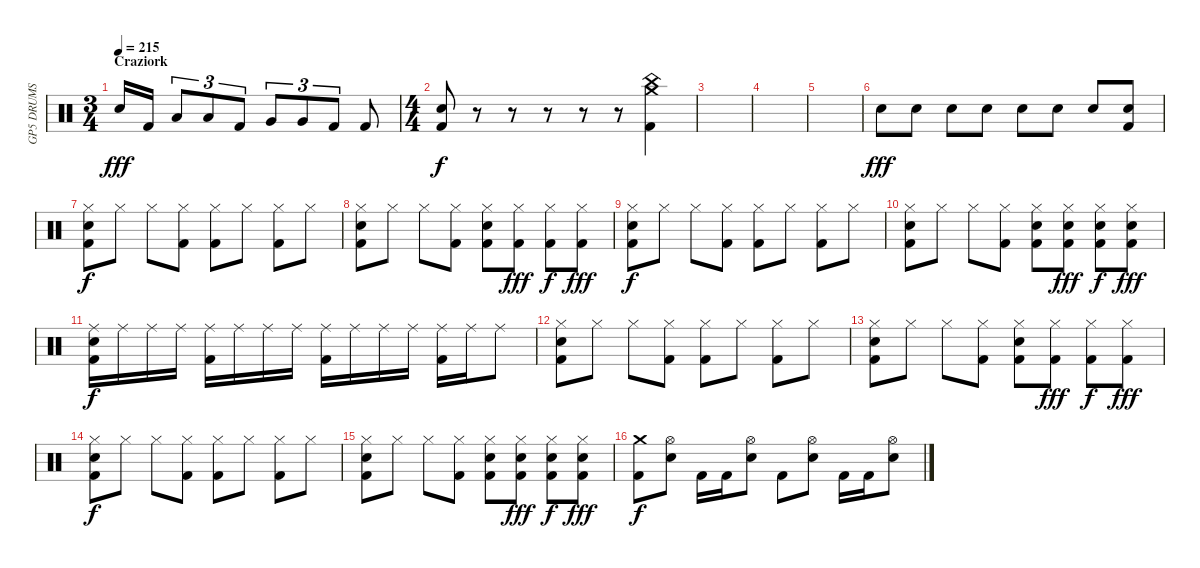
\track ("GP5 DRUMS" "GP5 DRUMS") {instrument percussion}
\staff {score}
\articulation defaults
\ts (3 4)
\section ("" "Craziork")
\tempo 215
\clef neutral
\ks c "Electric Snare (hit)".16{dy fff} "Kick (hit) 2".16 "Low Tom (hit)".8{tu (3 2)} "Low Tom (hit)".8{tu (3 2)} "Kick (hit) 2".8{tu (3 2)} "Very Low Tom (hit)".8{tu (3 2)} "Very Low Tom (hit)".8{tu (3 2)} "Kick (hit) 2".8{tu (3 2)} "Kick (hit) 2".8
|
\ts (4 4)
("Electric Snare (hit)" "Kick (hit) 2").8{dy f} r.8 r.8 r.8 r.8 r.8 ("China (hit)" "Crash medium (hit)" "Kick (hit) 2").4 |
|
|
|
"Electric Snare (hit)".8{dy fff} "Electric Snare (hit)".8 "Electric Snare (hit)".8 "Electric Snare (hit)".8 "Electric Snare (hit)".8 "Electric Snare (hit)".8 "Electric Snare (hit)".8 ("Electric Snare (hit)" "Kick (hit) 2").8 |
("Electric Snare (hit)" "Hi-Hat (closed)" "Kick (hit) 2").8{dy f} "Hi-Hat (closed)".8 "Hi-Hat (closed)".8 ("Hi-Hat (closed)" "Kick (hit) 2").8 ("Hi-Hat (closed)" "Kick (hit) 2").8 "Hi-Hat (closed)".8 ("Hi-Hat (closed)" "Kick (hit) 2").8 "Hi-Hat (closed)".8 |
("Electric Snare (hit)" "Hi-Hat (closed)" "Kick (hit) 2").8 "Hi-Hat (closed)".8 "Hi-Hat (closed)".8 ("Hi-Hat (closed)" "Kick (hit) 2").8 ("Electric Snare (hit)" "Hi-Hat (closed)" "Kick (hit) 2").8 ("Hi-Hat (closed)" "Kick (hit) 2").8{dy fff} ("Hi-Hat (closed)" "Kick (hit) 2").8{dy f} ("Hi-Hat (closed)" "Kick (hit) 2").8{dy fff} |
("Electric Snare (hit)" "Hi-Hat (closed)" "Kick (hit) 2").8{dy f} "Hi-Hat (closed)".8 "Hi-Hat (closed)".8 ("Hi-Hat (closed)" "Kick (hit) 2").8 ("Hi-Hat (closed)" "Kick (hit) 2").8 "Hi-Hat (closed)".8 ("Hi-Hat (closed)" "Kick (hit) 2").8 "Hi-Hat (closed)".8 |
("Electric Snare (hit)" "Hi-Hat (closed)" "Kick (hit) 2").8 "Hi-Hat (closed)".8 "Hi-Hat (closed)".8 ("Hi-Hat (closed)" "Kick (hit) 2").8 ("Electric Snare (hit)" "Hi-Hat (closed)" "Kick (hit) 2").8 ("Electric Snare (hit)" "Hi-Hat (closed)" "Kick (hit) 2").8{dy fff} ("Electric Snare (hit)" "Hi-Hat (closed)" "Kick (hit) 2").8{dy f} ("Electric Snare (hit)" "Hi-Hat (closed)" "Kick (hit) 2").8{dy fff} |
("Ride (middle)" "Electric Snare (hit)" "Kick (hit) 2").16{dy f} "Ride (middle)".16 "Ride (middle)".16 "Ride (middle)".16 ("Ride (middle)" "Kick (hit) 2").16 "Ride (middle)".16 "Ride (middle)".16 "Ride (middle)".16 ("Ride (middle)" "Kick (hit) 2").16 "Ride (middle)".16 "Ride (middle)".16 "Ride (middle)".16 ("Ride (middle)" "Kick (hit) 2").16 "Ride (middle)".16 "Ride (middle)".8 |
("Electric Snare (hit)" "Hi-Hat (closed)" "Kick (hit) 2").8 "Hi-Hat (closed)".8 "Hi-Hat (closed)".8 ("Hi-Hat (closed)" "Kick (hit) 2").8 ("Hi-Hat (closed)" "Kick (hit) 2").8 "Hi-Hat (closed)".8 ("Hi-Hat (closed)" "Kick (hit) 2").8 "Hi-Hat (closed)".8 |
("Electric Snare (hit)" "Hi-Hat (closed)" "Kick (hit) 2").8 "Hi-Hat (closed)".8 "Hi-Hat (closed)".8 ("Hi-Hat (closed)" "Kick (hit) 2").8 ("Electric Snare (hit)" "Hi-Hat (closed)" "Kick (hit) 2").8 ("Hi-Hat (closed)" "Kick (hit) 2").8{dy fff} ("Hi-Hat (closed)" "Kick (hit) 2").8{dy f} ("Hi-Hat (closed)" "Kick (hit) 2").8{dy fff} |
("Electric Snare (hit)" "Hi-Hat (closed)" "Kick (hit) 2").8{dy f} "Hi-Hat (closed)".8 "Hi-Hat (closed)".8 ("Hi-Hat (closed)" "Kick (hit) 2").8 ("Hi-Hat (closed)" "Kick (hit) 2").8 "Hi-Hat (closed)".8 ("Hi-Hat (closed)" "Kick (hit) 2").8 "Hi-Hat (closed)".8 |
("Electric Snare (hit)" "Hi-Hat (closed)" "Kick (hit) 2").8 "Hi-Hat (closed)".8 "Hi-Hat (closed)".8 ("Hi-Hat (closed)" "Kick (hit) 2").8 ("Electric Snare (hit)" "Hi-Hat (closed)" "Kick (hit) 2").8 ("Electric Snare (hit)" "Hi-Hat (closed)" "Kick (hit) 2").8{dy fff} ("Electric Snare (hit)" "Hi-Hat (closed)" "Kick (hit) 2").8{dy f} ("Electric Snare (hit)" "Hi-Hat (closed)" "Kick (hit) 2").8{dy fff} |
("Crash medium (hit)" "Kick (hit) 2").8{dy f} ("Hi-Hat (open)" "Electric Snare (hit)").8 "Kick (hit) 2".16 "Kick (hit) 2".16 ("Hi-Hat (open)" "Electric Snare (hit)").8 "Kick (hit) 2".8 ("Hi-Hat (open)" "Electric Snare (hit)").8 "Kick (hit) 2".16 "Kick (hit) 2".16 ("Hi-Hat (open)" "Electric Snare (hit)").8
